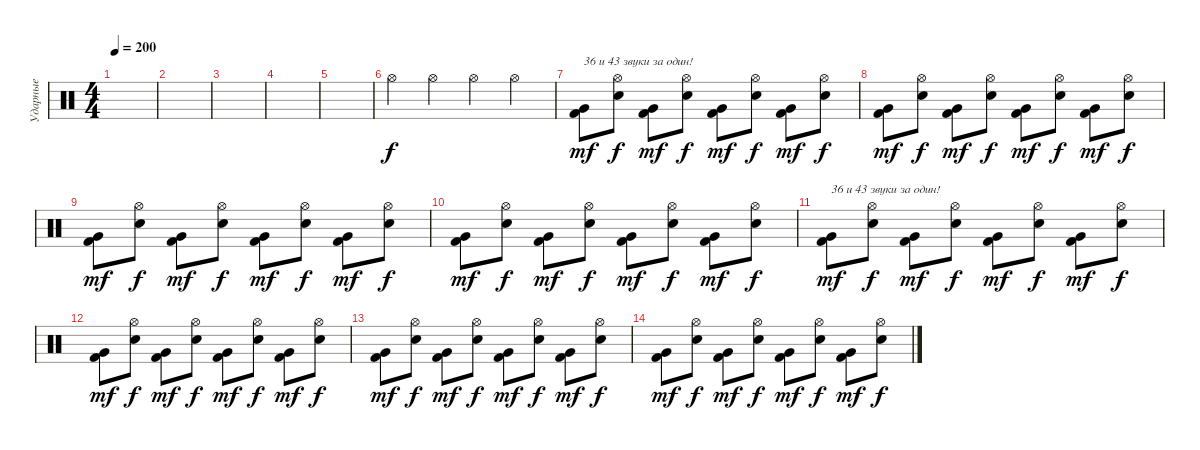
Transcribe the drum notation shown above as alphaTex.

\track ("Ударные" "Ударные") {instrument percussion}
\staff {score}
\articulation defaults
\ts (4 4)
\tempo 200
\clef neutral
\ks c
|
|
|
|
|
"Hi-Hat (open)".4 "Hi-Hat (open)".4 "Hi-Hat (open)".4 "Hi-Hat (open)".4 |
("Kick (hit) 2" "Very Low Tom (hit)").8{txt "36 и 43 звуки за один!" dy mf} ("Snare (hit) 2" "Hi-Hat (open)").8{dy f} ("Kick (hit) 2" "Very Low Tom (hit)").8{dy mf} ("Snare (hit) 2" "Hi-Hat (open)").8{dy f} ("Kick (hit) 2" "Very Low Tom (hit)").8{dy mf} ("Snare (hit) 2" "Hi-Hat (open)").8{dy f} ("Kick (hit) 2" "Very Low Tom (hit)").8{dy mf} ("Snare (hit) 2" "Hi-Hat (open)").8{dy f} |
("Kick (hit) 2" "Very Low Tom (hit)").8{dy mf} ("Snare (hit) 2" "Hi-Hat (open)").8{dy f} ("Kick (hit) 2" "Very Low Tom (hit)").8{dy mf} ("Snare (hit) 2" "Hi-Hat (open)").8{dy f} ("Kick (hit) 2" "Very Low Tom (hit)").8{dy mf} ("Snare (hit) 2" "Hi-Hat (open)").8{dy f} ("Kick (hit) 2" "Very Low Tom (hit)").8{dy mf} ("Snare (hit) 2" "Hi-Hat (open)").8{dy f} |
("Kick (hit) 2" "Very Low Tom (hit)").8{dy mf} ("Snare (hit) 2" "Hi-Hat (open)").8{dy f} ("Kick (hit) 2" "Very Low Tom (hit)").8{dy mf} ("Snare (hit) 2" "Hi-Hat (open)").8{dy f} ("Kick (hit) 2" "Very Low Tom (hit)").8{dy mf} ("Snare (hit) 2" "Hi-Hat (open)").8{dy f} ("Kick (hit) 2" "Very Low Tom (hit)").8{dy mf} ("Snare (hit) 2" "Hi-Hat (open)").8{dy f} |
("Kick (hit) 2" "Very Low Tom (hit)").8{dy mf} ("Snare (hit) 2" "Hi-Hat (open)").8{dy f} ("Kick (hit) 2" "Very Low Tom (hit)").8{dy mf} ("Snare (hit) 2" "Hi-Hat (open)").8{dy f} ("Kick (hit) 2" "Very Low Tom (hit)").8{dy mf} ("Snare (hit) 2" "Hi-Hat (open)").8{dy f} ("Kick (hit) 2" "Very Low Tom (hit)").8{dy mf} ("Snare (hit) 2" "Hi-Hat (open)").8{dy f} |
("Kick (hit) 2" "Very Low Tom (hit)").8{txt "36 и 43 звуки за один!" dy mf} ("Snare (hit) 2" "Hi-Hat (open)").8{dy f} ("Kick (hit) 2" "Very Low Tom (hit)").8{dy mf} ("Snare (hit) 2" "Hi-Hat (open)").8{dy f} ("Kick (hit) 2" "Very Low Tom (hit)").8{dy mf} ("Snare (hit) 2" "Hi-Hat (open)").8{dy f} ("Kick (hit) 2" "Very Low Tom (hit)").8{dy mf} ("Snare (hit) 2" "Hi-Hat (open)").8{dy f} |
("Kick (hit) 2" "Very Low Tom (hit)").8{dy mf} ("Snare (hit) 2" "Hi-Hat (open)").8{dy f} ("Kick (hit) 2" "Very Low Tom (hit)").8{dy mf} ("Snare (hit) 2" "Hi-Hat (open)").8{dy f} ("Kick (hit) 2" "Very Low Tom (hit)").8{dy mf} ("Snare (hit) 2" "Hi-Hat (open)").8{dy f} ("Kick (hit) 2" "Very Low Tom (hit)").8{dy mf} ("Snare (hit) 2" "Hi-Hat (open)").8{dy f} |
("Kick (hit) 2" "Very Low Tom (hit)").8{dy mf} ("Snare (hit) 2" "Hi-Hat (open)").8{dy f} ("Kick (hit) 2" "Very Low Tom (hit)").8{dy mf} ("Snare (hit) 2" "Hi-Hat (open)").8{dy f} ("Kick (hit) 2" "Very Low Tom (hit)").8{dy mf} ("Snare (hit) 2" "Hi-Hat (open)").8{dy f} ("Kick (hit) 2" "Very Low Tom (hit)").8{dy mf} ("Snare (hit) 2" "Hi-Hat (open)").8{dy f} |
("Kick (hit) 2" "Very Low Tom (hit)").8{dy mf} ("Snare (hit) 2" "Hi-Hat (open)").8{dy f} ("Kick (hit) 2" "Very Low Tom (hit)").8{dy mf} ("Snare (hit) 2" "Hi-Hat (open)").8{dy f} ("Kick (hit) 2" "Very Low Tom (hit)").8{dy mf} ("Snare (hit) 2" "Hi-Hat (open)").8{dy f} ("Kick (hit) 2" "Very Low Tom (hit)").8{dy mf} ("Snare (hit) 2" "Hi-Hat (open)").8{dy f}
